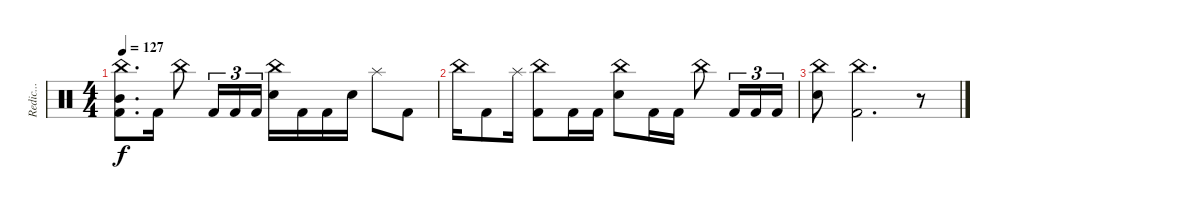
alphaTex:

\track ("Redic..." "Redic...") {instrument percussion}
\staff {score}
\articulation defaults
\ts (4 4)
\tempo 127
\clef neutral
\ks c
("China (hit)" "Mid Tom (hit)" "Kick (hit) 2").8{d dy f} "Kick (hit) 2".16 "China (hit)".8 "Kick (hit) 2".16{tu (3 2)} "Kick (hit) 2".16{tu (3 2)} "Kick (hit) 2".16{tu (3 2)} ("China (hit)" "Electric Snare (hit)").16 "Kick (hit) 2".16 "Kick (hit) 2".16 "Electric Snare (hit)".16 "Splash (hit)".8 "Kick (hit) 2".8 |
"China (hit)".16 "Kick (hit) 2".8 "Splash (hit)".16 ("China (hit)" "Kick (hit) 2").8 "Kick (hit) 2".16 "Kick (hit) 2".16 ("China (hit)" "Electric Snare (hit)").8 "Kick (hit) 2".16 "Kick (hit) 2".16 "China (hit)".8 "Kick (hit) 2".16{tu (3 2)} "Kick (hit) 2".16{tu (3 2)} "Kick (hit) 2".16{tu (3 2)} |
("China (hit)" "Electric Snare (hit)").8 ("China (hit)" "Kick (hit) 2").2{d} r.8
